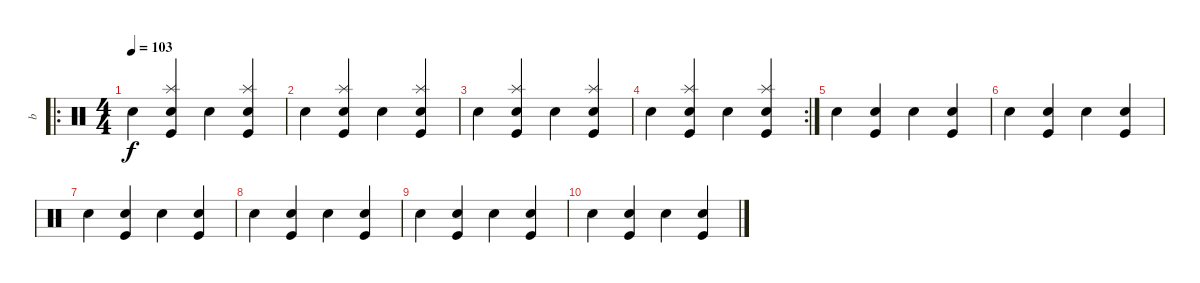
\track ("b" "b") {instrument percussion}
\staff {score}
\articulation defaults
\ro
\ts (4 4)
\tempo 103
\clef neutral
\ks c "Electric Snare (hit)".4{dy f}
("Snare (hit) 2" "Splash (hit)" "Kick (hit)").4 "Electric Snare (hit)".4 ("Snare (hit) 2" "Splash (hit)" "Kick (hit)").4 |
"Electric Snare (hit)".4 ("Snare (hit) 2" "Splash (hit)" "Kick (hit)").4 "Electric Snare (hit)".4 ("Snare (hit) 2" "Splash (hit)" "Kick (hit)").4 |
"Electric Snare (hit)".4 ("Snare (hit) 2" "Splash (hit)" "Kick (hit)").4 "Electric Snare (hit)".4 ("Snare (hit) 2" "Splash (hit)" "Kick (hit)").4 |
\rc 2 "Electric Snare (hit)".4
("Snare (hit) 2" "Splash (hit)" "Kick (hit)").4 "Electric Snare (hit)".4 ("Snare (hit) 2" "Splash (hit)" "Kick (hit)").4 |
"Electric Snare (hit)".4 ("Snare (hit) 2" "Kick (hit)").4 "Electric Snare (hit)".4 ("Snare (hit) 2" "Kick (hit)").4 |
"Electric Snare (hit)".4 ("Snare (hit) 2" "Kick (hit)").4 "Electric Snare (hit)".4 ("Snare (hit) 2" "Kick (hit)").4 |
"Electric Snare (hit)".4 ("Snare (hit) 2" "Kick (hit)").4 "Electric Snare (hit)".4 ("Snare (hit) 2" "Kick (hit)").4 |
"Electric Snare (hit)".4{volume 5} ("Snare (hit) 2" "Kick (hit)").4 "Electric Snare (hit)".4 ("Snare (hit) 2" "Kick (hit)").4 |
"Electric Snare (hit)".4 ("Snare (hit) 2" "Kick (hit)").4 "Electric Snare (hit)".4{volume 0} ("Snare (hit) 2" "Kick (hit)").4 |
"Electric Snare (hit)".4 ("Snare (hit) 2" "Kick (hit)").4 "Electric Snare (hit)".4 ("Snare (hit) 2" "Kick (hit)").4
